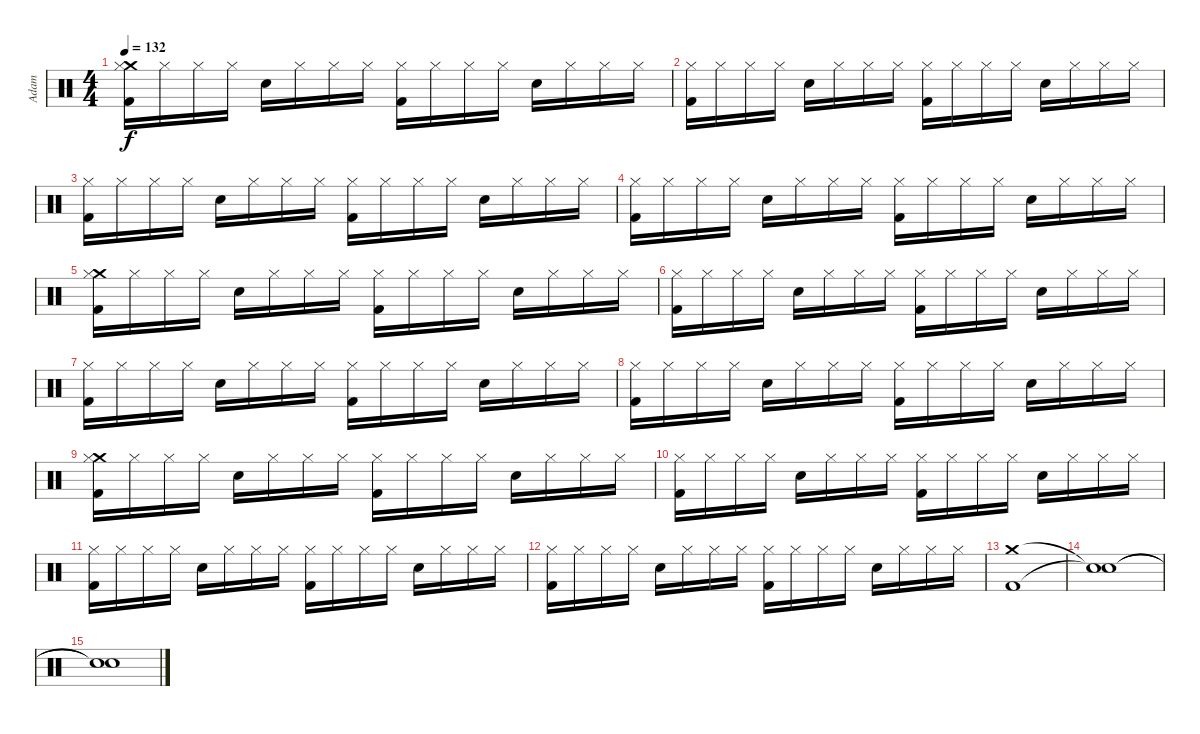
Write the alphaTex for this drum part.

\track ("Adam" "Adam") {instrument percussion}
\staff {score}
\articulation defaults
\ts (4 4)
\tempo 132
\clef neutral
\ks c
("Crash medium (hit)" "Hi-Hat (closed)" "Kick (hit) 2").16{dy f} "Hi-Hat (closed)".16 "Hi-Hat (closed)".16 "Hi-Hat (closed)".16 "Snare (hit) 2".16 "Hi-Hat (closed)".16 "Hi-Hat (closed)".16 "Hi-Hat (closed)".16 ("Hi-Hat (closed)" "Kick (hit) 2").16 "Hi-Hat (closed)".16 "Hi-Hat (closed)".16 "Hi-Hat (closed)".16 "Snare (hit) 2".16 "Hi-Hat (closed)".16 "Hi-Hat (closed)".16 "Hi-Hat (closed)".16 |
("Hi-Hat (closed)" "Kick (hit) 2").16 "Hi-Hat (closed)".16 "Hi-Hat (closed)".16 "Hi-Hat (closed)".16 "Snare (hit) 2".16 "Hi-Hat (closed)".16 "Hi-Hat (closed)".16 "Hi-Hat (closed)".16 ("Hi-Hat (closed)" "Kick (hit) 2").16 "Hi-Hat (closed)".16 "Hi-Hat (closed)".16 "Hi-Hat (closed)".16 "Snare (hit) 2".16 "Hi-Hat (closed)".16 "Hi-Hat (closed)".16 "Hi-Hat (closed)".16 |
("Hi-Hat (closed)" "Kick (hit) 2").16 "Hi-Hat (closed)".16 "Hi-Hat (closed)".16 "Hi-Hat (closed)".16 "Snare (hit) 2".16 "Hi-Hat (closed)".16 "Hi-Hat (closed)".16 "Hi-Hat (closed)".16 ("Hi-Hat (closed)" "Kick (hit) 2").16 "Hi-Hat (closed)".16 "Hi-Hat (closed)".16 "Hi-Hat (closed)".16 "Snare (hit) 2".16 "Hi-Hat (closed)".16 "Hi-Hat (closed)".16 "Hi-Hat (closed)".16 |
("Hi-Hat (closed)" "Kick (hit) 2").16 "Hi-Hat (closed)".16 "Hi-Hat (closed)".16 "Hi-Hat (closed)".16 "Snare (hit) 2".16 "Hi-Hat (closed)".16 "Hi-Hat (closed)".16 "Hi-Hat (closed)".16 ("Hi-Hat (closed)" "Kick (hit) 2").16 "Hi-Hat (closed)".16 "Hi-Hat (closed)".16 "Hi-Hat (closed)".16 "Snare (hit) 2".16 "Hi-Hat (closed)".16 "Hi-Hat (closed)".16 "Hi-Hat (closed)".16 |
("Crash medium (hit)" "Hi-Hat (closed)" "Kick (hit) 2").16 "Hi-Hat (closed)".16 "Hi-Hat (closed)".16 "Hi-Hat (closed)".16 "Snare (hit) 2".16 "Hi-Hat (closed)".16 "Hi-Hat (closed)".16 "Hi-Hat (closed)".16 ("Hi-Hat (closed)" "Kick (hit) 2").16 "Hi-Hat (closed)".16 "Hi-Hat (closed)".16 "Hi-Hat (closed)".16 "Snare (hit) 2".16 "Hi-Hat (closed)".16 "Hi-Hat (closed)".16 "Hi-Hat (closed)".16 |
("Hi-Hat (closed)" "Kick (hit) 2").16 "Hi-Hat (closed)".16 "Hi-Hat (closed)".16 "Hi-Hat (closed)".16 "Snare (hit) 2".16 "Hi-Hat (closed)".16 "Hi-Hat (closed)".16 "Hi-Hat (closed)".16 ("Hi-Hat (closed)" "Kick (hit) 2").16 "Hi-Hat (closed)".16 "Hi-Hat (closed)".16 "Hi-Hat (closed)".16 "Snare (hit) 2".16 "Hi-Hat (closed)".16 "Hi-Hat (closed)".16 "Hi-Hat (closed)".16 |
("Hi-Hat (closed)" "Kick (hit) 2").16 "Hi-Hat (closed)".16 "Hi-Hat (closed)".16 "Hi-Hat (closed)".16 "Snare (hit) 2".16 "Hi-Hat (closed)".16 "Hi-Hat (closed)".16 "Hi-Hat (closed)".16 ("Hi-Hat (closed)" "Kick (hit) 2").16 "Hi-Hat (closed)".16 "Hi-Hat (closed)".16 "Hi-Hat (closed)".16 "Snare (hit) 2".16 "Hi-Hat (closed)".16 "Hi-Hat (closed)".16 "Hi-Hat (closed)".16 |
("Hi-Hat (closed)" "Kick (hit) 2").16 "Hi-Hat (closed)".16 "Hi-Hat (closed)".16 "Hi-Hat (closed)".16 "Snare (hit) 2".16 "Hi-Hat (closed)".16 "Hi-Hat (closed)".16 "Hi-Hat (closed)".16 ("Hi-Hat (closed)" "Kick (hit) 2").16 "Hi-Hat (closed)".16 "Hi-Hat (closed)".16 "Hi-Hat (closed)".16 "Snare (hit) 2".16 "Hi-Hat (closed)".16 "Hi-Hat (closed)".16 "Hi-Hat (closed)".16 |
("Crash medium (hit)" "Hi-Hat (closed)" "Kick (hit) 2").16 "Hi-Hat (closed)".16 "Hi-Hat (closed)".16 "Hi-Hat (closed)".16 "Snare (hit) 2".16 "Hi-Hat (closed)".16 "Hi-Hat (closed)".16 "Hi-Hat (closed)".16 ("Hi-Hat (closed)" "Kick (hit) 2").16 "Hi-Hat (closed)".16 "Hi-Hat (closed)".16 "Hi-Hat (closed)".16 "Snare (hit) 2".16 "Hi-Hat (closed)".16 "Hi-Hat (closed)".16 "Hi-Hat (closed)".16 |
("Hi-Hat (closed)" "Kick (hit) 2").16 "Hi-Hat (closed)".16 "Hi-Hat (closed)".16 "Hi-Hat (closed)".16 "Snare (hit) 2".16 "Hi-Hat (closed)".16 "Hi-Hat (closed)".16 "Hi-Hat (closed)".16 ("Hi-Hat (closed)" "Kick (hit) 2").16 "Hi-Hat (closed)".16 "Hi-Hat (closed)".16 "Hi-Hat (closed)".16 "Snare (hit) 2".16 "Hi-Hat (closed)".16 "Hi-Hat (closed)".16 "Hi-Hat (closed)".16 |
("Hi-Hat (closed)" "Kick (hit) 2").16 "Hi-Hat (closed)".16 "Hi-Hat (closed)".16 "Hi-Hat (closed)".16 "Snare (hit) 2".16 "Hi-Hat (closed)".16 "Hi-Hat (closed)".16 "Hi-Hat (closed)".16 ("Hi-Hat (closed)" "Kick (hit) 2").16 "Hi-Hat (closed)".16 "Hi-Hat (closed)".16 "Hi-Hat (closed)".16 "Snare (hit) 2".16 "Hi-Hat (closed)".16 "Hi-Hat (closed)".16 "Hi-Hat (closed)".16 |
("Hi-Hat (closed)" "Kick (hit) 2").16 "Hi-Hat (closed)".16 "Hi-Hat (closed)".16 "Hi-Hat (closed)".16 "Snare (hit) 2".16 "Hi-Hat (closed)".16 "Hi-Hat (closed)".16 "Hi-Hat (closed)".16 ("Hi-Hat (closed)" "Kick (hit) 2").16 "Hi-Hat (closed)".16 "Hi-Hat (closed)".16 "Hi-Hat (closed)".16 "Snare (hit) 2".16 "Hi-Hat (closed)".16 "Hi-Hat (closed)".16 "Hi-Hat (closed)".16 |
("Crash medium (hit)" "Kick (hit) 2").1 |
("Snare (hit)"{t} "Snare (hit)"{t}).1 |
("Snare (hit)"{t} "Snare (hit)"{t}).1
